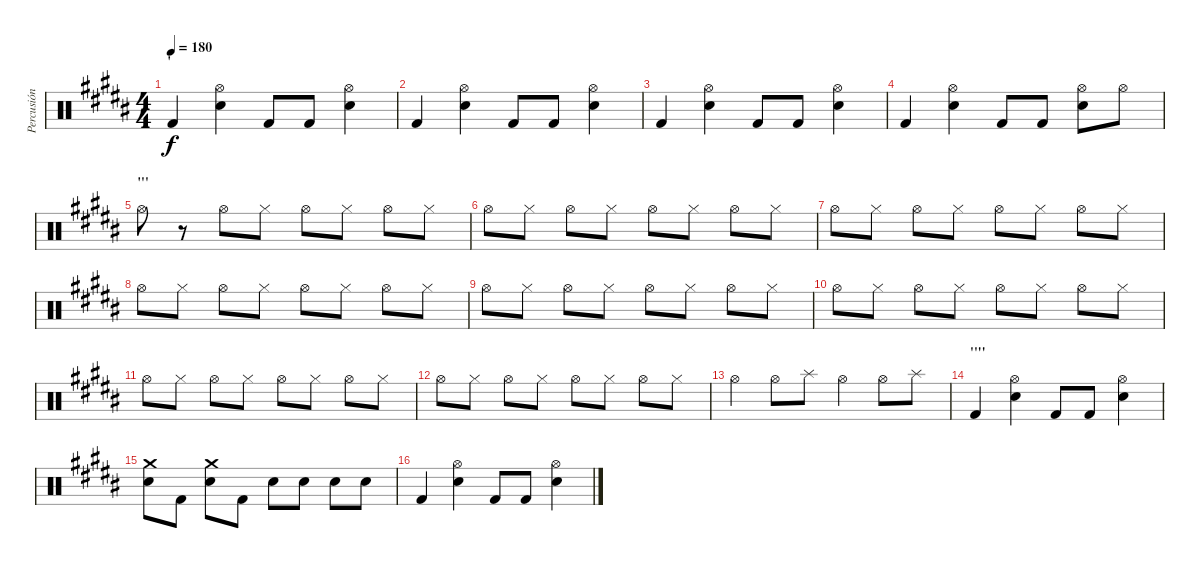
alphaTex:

\track ("Percusión" "Percusión") {instrument percussion}
\staff {score}
\articulation defaults
\ts (4 4)
\section ("" "'")
\tempo 180
\clef neutral
\ks b "Kick (hit) 2".4{dy f}
("Hi-Hat (open)" "Electric Snare (hit)").4 "Kick (hit) 2".8 "Kick (hit) 2".8 ("Hi-Hat (open)" "Electric Snare (hit)").4 |
"Kick (hit) 2".4 ("Hi-Hat (open)" "Electric Snare (hit)").4 "Kick (hit) 2".8 "Kick (hit) 2".8 ("Hi-Hat (open)" "Electric Snare (hit)").4 |
"Kick (hit) 2".4 ("Hi-Hat (open)" "Electric Snare (hit)").4 "Kick (hit) 2".8 "Kick (hit) 2".8 ("Hi-Hat (open)" "Electric Snare (hit)").4 |
"Kick (hit) 2".4 ("Hi-Hat (open)" "Electric Snare (hit)").4 "Kick (hit) 2".8 "Kick (hit) 2".8 ("Hi-Hat (open)" "Electric Snare (hit)").8 "Hi-Hat (open)".8 |
\section ("" "'''")
"Hi-Hat (open)".8 r.8 "Hi-Hat (open)".8 "Hi-Hat (closed)".8 "Hi-Hat (open)".8 "Hi-Hat (closed)".8 "Hi-Hat (open)".8 "Hi-Hat (closed)".8 |
\section ("" "")
"Hi-Hat (open)".8 "Hi-Hat (closed)".8 "Hi-Hat (open)".8 "Hi-Hat (closed)".8 "Hi-Hat (open)".8 "Hi-Hat (closed)".8 "Hi-Hat (open)".8 "Hi-Hat (closed)".8 |
"Hi-Hat (open)".8 "Hi-Hat (closed)".8 "Hi-Hat (open)".8 "Hi-Hat (closed)".8 "Hi-Hat (open)".8 "Hi-Hat (closed)".8 "Hi-Hat (open)".8 "Hi-Hat (closed)".8 |
"Hi-Hat (open)".8 "Hi-Hat (closed)".8 "Hi-Hat (open)".8 "Hi-Hat (closed)".8 "Hi-Hat (open)".8 "Hi-Hat (closed)".8 "Hi-Hat (open)".8 "Hi-Hat (closed)".8 |
"Hi-Hat (open)".8 "Hi-Hat (closed)".8 "Hi-Hat (open)".8 "Hi-Hat (closed)".8 "Hi-Hat (open)".8 "Hi-Hat (closed)".8 "Hi-Hat (open)".8 "Hi-Hat (closed)".8 |
"Hi-Hat (open)".8 "Hi-Hat (closed)".8 "Hi-Hat (open)".8 "Hi-Hat (closed)".8 "Hi-Hat (open)".8 "Hi-Hat (closed)".8 "Hi-Hat (open)".8 "Hi-Hat (closed)".8 |
"Hi-Hat (open)".8 "Hi-Hat (closed)".8 "Hi-Hat (open)".8 "Hi-Hat (closed)".8 "Hi-Hat (open)".8 "Hi-Hat (closed)".8 "Hi-Hat (open)".8 "Hi-Hat (closed)".8 |
"Hi-Hat (open)".8 "Hi-Hat (closed)".8 "Hi-Hat (open)".8 "Hi-Hat (closed)".8 "Hi-Hat (open)".8 "Hi-Hat (closed)".8 "Hi-Hat (open)".8 "Hi-Hat (closed)".8 |
"Hi-Hat (open)".4 "Hi-Hat (open)".8 "Splash (hit)".8 "Hi-Hat (open)".4 "Hi-Hat (open)".8 "Splash (hit)".8 |
\section ("" "''''")
"Kick (hit) 2".4 ("Hi-Hat (open)" "Electric Snare (hit)").4 "Kick (hit) 2".8 "Kick (hit) 2".8 ("Hi-Hat (open)" "Electric Snare (hit)").4 |
("Crash medium (hit)" "Electric Snare (hit)").8 "Kick (hit) 2".8 ("Crash medium (hit)" "Electric Snare (hit)").8 "Kick (hit) 2".8 "Electric Snare (hit)".8 "Electric Snare (hit)".8 "Electric Snare (hit)".8 "Electric Snare (hit)".8 |
"Kick (hit) 2".4 ("Hi-Hat (open)" "Electric Snare (hit)").4 "Kick (hit) 2".8 "Kick (hit) 2".8 ("Hi-Hat (open)" "Electric Snare (hit)").4
